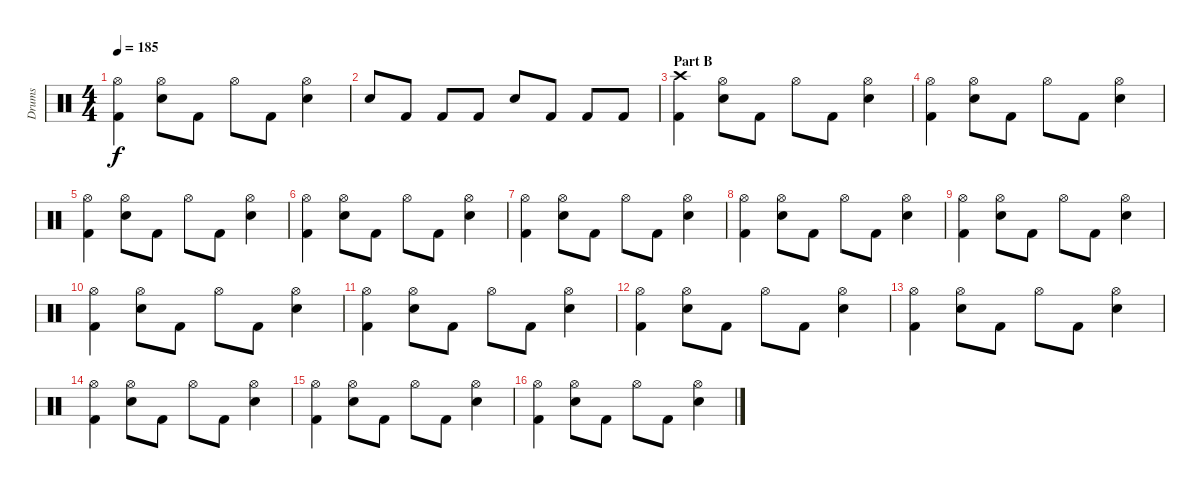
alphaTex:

\track ("Drums" "Drums") {instrument percussion}
\staff {score}
\articulation defaults
\ts (4 4)
\tempo 185
\clef neutral
\ks c
("Kick (hit) 2" "Hi-Hat (open)").4{dy f} ("Electric Snare (hit)" "Hi-Hat (open)").8 "Kick (hit) 2".8 "Hi-Hat (open)".8 "Kick (hit) 2".8 ("Electric Snare (hit)" "Hi-Hat (open)").4 |
"Electric Snare (hit)".8 "Kick (hit) 2".8 "Kick (hit) 2".8 "Kick (hit) 2".8 "Electric Snare (hit)".8 "Kick (hit) 2".8 "Kick (hit) 2".8 "Kick (hit) 2".8 |
\section ("" "Part B")
("Kick (hit) 2" "Crash high (hit)").4 ("Electric Snare (hit)" "Hi-Hat (open)").8 "Kick (hit) 2".8 "Hi-Hat (open)".8 "Kick (hit) 2".8 ("Electric Snare (hit)" "Hi-Hat (open)").4 |
("Kick (hit) 2" "Hi-Hat (open)").4 ("Electric Snare (hit)" "Hi-Hat (open)").8 "Kick (hit) 2".8 "Hi-Hat (open)".8 "Kick (hit) 2".8 ("Electric Snare (hit)" "Hi-Hat (open)").4 |
("Kick (hit) 2" "Hi-Hat (open)").4 ("Electric Snare (hit)" "Hi-Hat (open)").8 "Kick (hit) 2".8 "Hi-Hat (open)".8 "Kick (hit) 2".8 ("Electric Snare (hit)" "Hi-Hat (open)").4 |
("Kick (hit) 2" "Hi-Hat (open)").4 ("Electric Snare (hit)" "Hi-Hat (open)").8 "Kick (hit) 2".8 "Hi-Hat (open)".8 "Kick (hit) 2".8 ("Electric Snare (hit)" "Hi-Hat (open)").4 |
("Kick (hit) 2" "Hi-Hat (open)").4 ("Electric Snare (hit)" "Hi-Hat (open)").8 "Kick (hit) 2".8 "Hi-Hat (open)".8 "Kick (hit) 2".8 ("Electric Snare (hit)" "Hi-Hat (open)").4 |
("Kick (hit) 2" "Hi-Hat (open)").4 ("Electric Snare (hit)" "Hi-Hat (open)").8 "Kick (hit) 2".8 "Hi-Hat (open)".8 "Kick (hit) 2".8 ("Electric Snare (hit)" "Hi-Hat (open)").4 |
("Kick (hit) 2" "Hi-Hat (open)").4 ("Electric Snare (hit)" "Hi-Hat (open)").8 "Kick (hit) 2".8 "Hi-Hat (open)".8 "Kick (hit) 2".8 ("Electric Snare (hit)" "Hi-Hat (open)").4 |
("Kick (hit) 2" "Hi-Hat (open)").4 ("Electric Snare (hit)" "Hi-Hat (open)").8 "Kick (hit) 2".8 "Hi-Hat (open)".8 "Kick (hit) 2".8 ("Electric Snare (hit)" "Hi-Hat (open)").4 |
("Kick (hit) 2" "Hi-Hat (open)").4 ("Electric Snare (hit)" "Hi-Hat (open)").8 "Kick (hit) 2".8 "Hi-Hat (open)".8 "Kick (hit) 2".8 ("Electric Snare (hit)" "Hi-Hat (open)").4 |
("Kick (hit) 2" "Hi-Hat (open)").4 ("Electric Snare (hit)" "Hi-Hat (open)").8 "Kick (hit) 2".8 "Hi-Hat (open)".8 "Kick (hit) 2".8 ("Electric Snare (hit)" "Hi-Hat (open)").4 |
("Kick (hit) 2" "Hi-Hat (open)").4 ("Electric Snare (hit)" "Hi-Hat (open)").8 "Kick (hit) 2".8 "Hi-Hat (open)".8 "Kick (hit) 2".8 ("Electric Snare (hit)" "Hi-Hat (open)").4 |
("Kick (hit) 2" "Hi-Hat (open)").4 ("Electric Snare (hit)" "Hi-Hat (open)").8 "Kick (hit) 2".8 "Hi-Hat (open)".8 "Kick (hit) 2".8 ("Electric Snare (hit)" "Hi-Hat (open)").4 |
("Kick (hit) 2" "Hi-Hat (open)").4 ("Electric Snare (hit)" "Hi-Hat (open)").8 "Kick (hit) 2".8 "Hi-Hat (open)".8 "Kick (hit) 2".8 ("Electric Snare (hit)" "Hi-Hat (open)").4 |
("Kick (hit) 2" "Hi-Hat (open)").4 ("Electric Snare (hit)" "Hi-Hat (open)").8 "Kick (hit) 2".8 "Hi-Hat (open)".8 "Kick (hit) 2".8 ("Electric Snare (hit)" "Hi-Hat (open)").4
